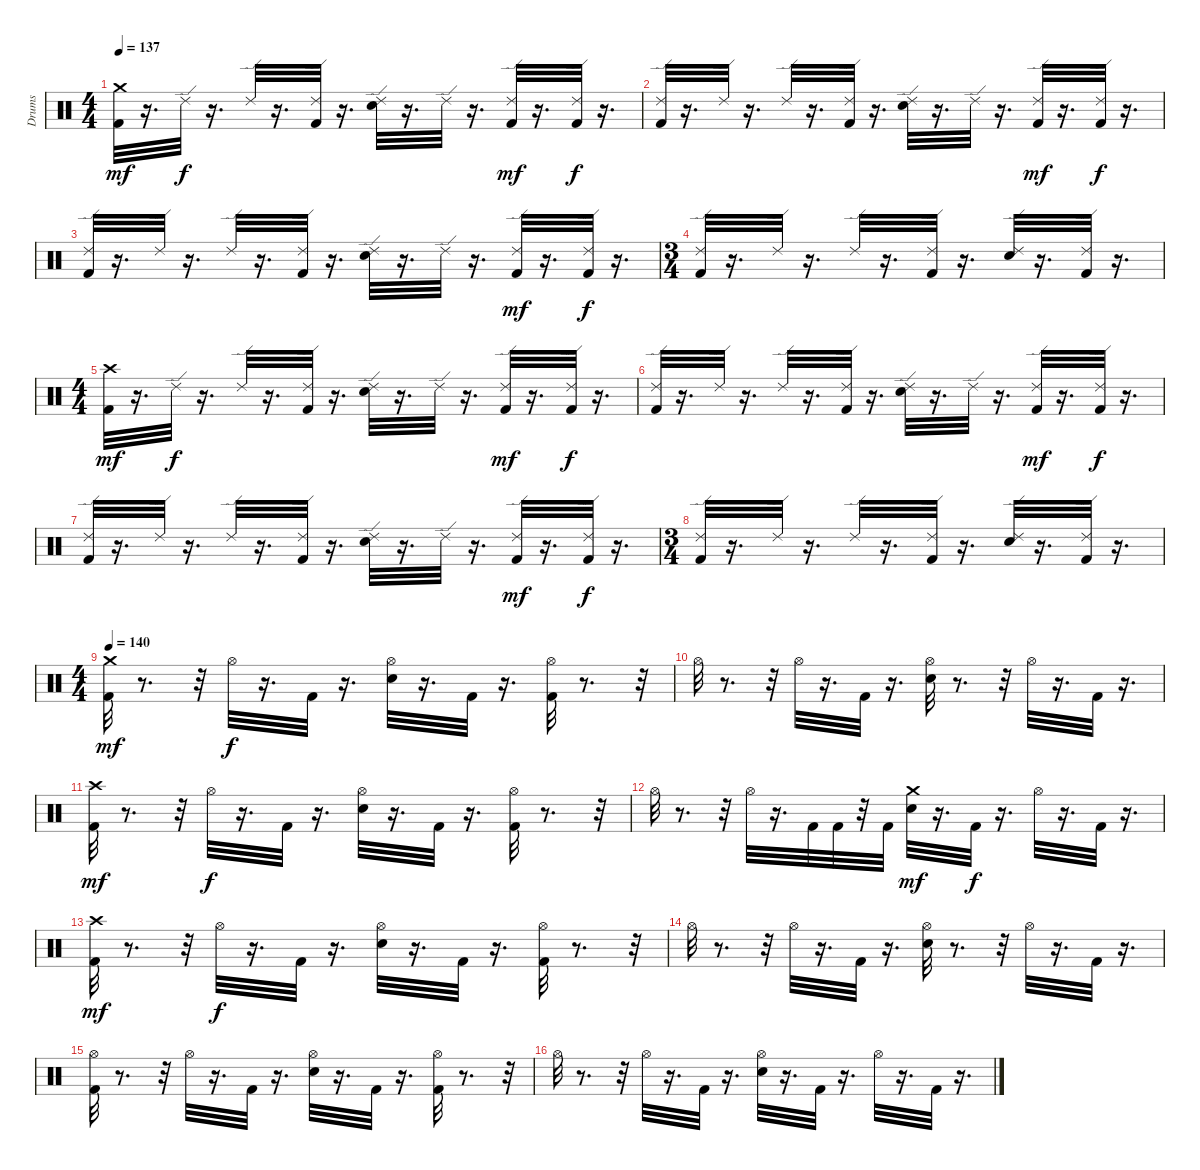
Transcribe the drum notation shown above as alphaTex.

\track ("Drums" "Drums") {instrument percussion}
\staff {score}
\articulation defaults
\ts (4 4)
\tempo 137
\clef neutral
\ks c
("Kick (hit) 2" "Crash medium (hit)").32{dy mf} r.16{d} "Ride (edge) 2".32{dy f} r.16{d} "Ride (edge) 2".32 r.16{d} ("Kick (hit) 2" "Ride (edge) 2").32 r.16{d} ("Snare (hit) 2" "Ride (edge) 2").32 r.16{d} "Ride (edge) 2".32 r.16{d} ("Kick (hit) 2" "Ride (edge) 2").32{dy mf} r.16{d} ("Kick (hit) 2" "Ride (edge) 2").32{dy f} r.16{d} |
("Kick (hit) 2" "Ride (edge) 2").32 r.16{d} "Ride (edge) 2".32 r.16{d} "Ride (edge) 2".32 r.16{d} ("Kick (hit) 2" "Ride (edge) 2").32 r.16{d} ("Snare (hit) 2" "Ride (edge) 2").32 r.16{d} "Ride (edge) 2".32 r.16{d} ("Kick (hit) 2" "Ride (edge) 2").32{dy mf} r.16{d} ("Kick (hit) 2" "Ride (edge) 2").32{dy f} r.16{d} |
("Kick (hit) 2" "Ride (edge) 2").32 r.16{d} "Ride (edge) 2".32 r.16{d} "Ride (edge) 2".32 r.16{d} ("Kick (hit) 2" "Ride (edge) 2").32 r.16{d} ("Snare (hit) 2" "Ride (edge) 2").32 r.16{d} "Ride (edge) 2".32 r.16{d} ("Kick (hit) 2" "Ride (edge) 2").32{dy mf} r.16{d} ("Kick (hit) 2" "Ride (edge) 2").32{dy f} r.16{d} |
\ts (3 4)
("Kick (hit) 2" "Ride (edge) 2").32 r.16{d} "Ride (edge) 2".32 r.16{d} "Ride (edge) 2".32 r.16{d} ("Kick (hit) 2" "Ride (edge) 2").32 r.16{d} ("Snare (hit) 2" "Ride (edge) 2").32 r.16{d} ("Kick (hit) 2" "Ride (edge) 2").32 r.16{d} |
\ts (4 4)
("Kick (hit) 2" "Crash high (hit)").32{dy mf} r.16{d} "Ride (edge) 2".32{dy f} r.16{d} "Ride (edge) 2".32 r.16{d} ("Kick (hit) 2" "Ride (edge) 2").32 r.16{d} ("Snare (hit) 2" "Ride (edge) 2").32 r.16{d} "Ride (edge) 2".32 r.16{d} ("Kick (hit) 2" "Ride (edge) 2").32{dy mf} r.16{d} ("Kick (hit) 2" "Ride (edge) 2").32{dy f} r.16{d} |
("Kick (hit) 2" "Ride (edge) 2").32 r.16{d} "Ride (edge) 2".32 r.16{d} "Ride (edge) 2".32 r.16{d} ("Kick (hit) 2" "Ride (edge) 2").32 r.16{d} ("Snare (hit) 2" "Ride (edge) 2").32 r.16{d} "Ride (edge) 2".32 r.16{d} ("Kick (hit) 2" "Ride (edge) 2").32{dy mf} r.16{d} ("Kick (hit) 2" "Ride (edge) 2").32{dy f} r.16{d} |
("Kick (hit) 2" "Ride (edge) 2").32 r.16{d} "Ride (edge) 2".32 r.16{d} "Ride (edge) 2".32 r.16{d} ("Kick (hit) 2" "Ride (edge) 2").32 r.16{d} ("Snare (hit) 2" "Ride (edge) 2").32 r.16{d} "Ride (edge) 2".32 r.16{d} ("Kick (hit) 2" "Ride (edge) 2").32{dy mf} r.16{d} ("Kick (hit) 2" "Ride (edge) 2").32{dy f} r.16{d} |
\ts (3 4)
("Kick (hit) 2" "Ride (edge) 2").32 r.16{d} "Ride (edge) 2".32 r.16{d} "Ride (edge) 2".32 r.16{d} ("Kick (hit) 2" "Ride (edge) 2").32 r.16{d} ("Snare (hit) 2" "Ride (edge) 2").32 r.16{d} ("Kick (hit) 2" "Ride (edge) 2").32 r.16{d} |
\ts (4 4)
\tempo 140
("Kick (hit) 2" "Crash medium (hit)").32{dy mf} r.8{d} r.32 "Hi-Hat (open)".32{dy f} r.16{d} "Kick (hit) 2".32 r.16{d} ("Snare (hit) 2" "Hi-Hat (open)").32 r.16{d} "Kick (hit) 2".32 r.16{d} ("Kick (hit) 2" "Hi-Hat (open)").32 r.8{d} r.32 |
"Hi-Hat (open)".32 r.8{d} r.32 "Hi-Hat (open)".32 r.16{d} "Kick (hit) 2".32 r.16{d} ("Snare (hit) 2" "Hi-Hat (open)").32 r.8{d} r.32 "Hi-Hat (open)".32 r.16{d} "Kick (hit) 2".32 r.16{d} |
("Kick (hit) 2" "Crash high (hit)").32{dy mf} r.8{d} r.32 "Hi-Hat (open)".32{dy f} r.16{d} "Kick (hit) 2".32 r.16{d} ("Snare (hit) 2" "Hi-Hat (open)").32 r.16{d} "Kick (hit) 2".32 r.16{d} ("Kick (hit) 2" "Hi-Hat (open)").32 r.8{d} r.32 |
"Hi-Hat (open)".32 r.8{d} r.32 "Hi-Hat (open)".32 r.16{d} "Kick (hit) 2".32 "Kick (hit) 2".32 r.32 "Kick (hit) 2".32 ("Snare (hit) 2" "Crash medium (hit)").32{dy mf} r.16{d} "Kick (hit) 2".32{dy f} r.16{d} "Hi-Hat (open)".32 r.16{d} "Kick (hit) 2".32 r.16{d} |
("Kick (hit) 2" "Crash high (hit)").32{dy mf} r.8{d} r.32 "Hi-Hat (open)".32{dy f} r.16{d} "Kick (hit) 2".32 r.16{d} ("Snare (hit) 2" "Hi-Hat (open)").32 r.16{d} "Kick (hit) 2".32 r.16{d} ("Kick (hit) 2" "Hi-Hat (open)").32 r.8{d} r.32 |
"Hi-Hat (open)".32 r.8{d} r.32 "Hi-Hat (open)".32 r.16{d} "Kick (hit) 2".32 r.16{d} ("Snare (hit) 2" "Hi-Hat (open)").32 r.8{d} r.32 "Hi-Hat (open)".32 r.16{d} "Kick (hit) 2".32 r.16{d} |
("Kick (hit) 2" "Hi-Hat (open)").32 r.8{d} r.32 "Hi-Hat (open)".32 r.16{d} "Kick (hit) 2".32 r.16{d} ("Snare (hit) 2" "Hi-Hat (open)").32 r.16{d} "Kick (hit) 2".32 r.16{d} ("Kick (hit) 2" "Hi-Hat (open)").32 r.8{d} r.32 |
"Hi-Hat (open)".32 r.8{d} r.32 "Hi-Hat (open)".32 r.16{d} "Kick (hit) 2".32 r.16{d} ("Snare (hit) 2" "Hi-Hat (open)").32 r.16{d} "Kick (hit) 2".32 r.16{d} "Hi-Hat (open)".32 r.16{d} "Kick (hit) 2".32 r.16{d}
